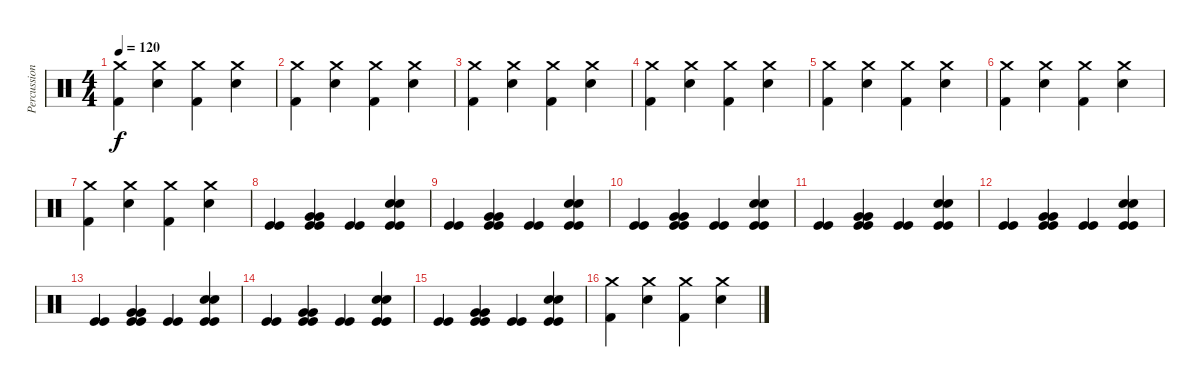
\track ("Percussion" "Percussion") {instrument percussion}
\staff {score}
\articulation defaults
\ts (4 4)
\tempo 120
\clef neutral
\ks c
("Crash medium (hit)" "Kick (hit) 2").4{dy f} ("Crash medium (hit)" "Snare (hit) 2").4 ("Crash medium (hit)" "Kick (hit) 2").4 ("Crash medium (hit)" "Snare (hit) 2").4 |
("Crash medium (hit)" "Kick (hit) 2").4 ("Crash medium (hit)" "Snare (hit) 2").4 ("Crash medium (hit)" "Kick (hit) 2").4 ("Crash medium (hit)" "Snare (hit) 2").4 |
("Crash medium (hit)" "Kick (hit) 2").4 ("Crash medium (hit)" "Snare (hit) 2").4 ("Crash medium (hit)" "Kick (hit) 2").4 ("Crash medium (hit)" "Snare (hit) 2").4 |
("Crash medium (hit)" "Kick (hit) 2").4 ("Crash medium (hit)" "Snare (hit) 2").4 ("Crash medium (hit)" "Kick (hit) 2").4 ("Crash medium (hit)" "Snare (hit) 2").4 |
("Crash medium (hit)" "Kick (hit) 2").4 ("Crash medium (hit)" "Snare (hit) 2").4 ("Crash medium (hit)" "Kick (hit) 2").4 ("Crash medium (hit)" "Snare (hit) 2").4 |
("Crash medium (hit)" "Kick (hit) 2").4 ("Crash medium (hit)" "Snare (hit) 2").4 ("Crash medium (hit)" "Kick (hit) 2").4 ("Crash medium (hit)" "Snare (hit) 2").4 |
("Crash medium (hit)" "Kick (hit) 2").4 ("Crash medium (hit)" "Snare (hit) 2").4 ("Crash medium (hit)" "Kick (hit) 2").4 ("Crash medium (hit)" "Snare (hit) 2").4 |
("Kick (hit)" "Kick (hit)").4 ("Kick (hit)" "Kick (hit)" "Very Low Tom (hit)" "Very Low Tom (hit)").4 ("Kick (hit)" "Kick (hit)").4 ("Kick (hit)" "Kick (hit)" "Snare (hit) 2" "Snare (hit) 2").4 |
("Kick (hit)" "Kick (hit)").4 ("Kick (hit)" "Kick (hit)" "Very Low Tom (hit)" "Very Low Tom (hit)").4 ("Kick (hit)" "Kick (hit)").4 ("Kick (hit)" "Kick (hit)" "Snare (hit) 2" "Snare (hit) 2").4 |
("Kick (hit)" "Kick (hit)").4 ("Kick (hit)" "Kick (hit)" "Very Low Tom (hit)" "Very Low Tom (hit)").4 ("Kick (hit)" "Kick (hit)").4 ("Kick (hit)" "Kick (hit)" "Snare (hit) 2" "Snare (hit) 2").4 |
("Kick (hit)" "Kick (hit)").4 ("Kick (hit)" "Kick (hit)" "Very Low Tom (hit)" "Very Low Tom (hit)").4 ("Kick (hit)" "Kick (hit)").4 ("Kick (hit)" "Kick (hit)" "Snare (hit) 2" "Snare (hit) 2").4 |
("Kick (hit)" "Kick (hit)").4 ("Kick (hit)" "Kick (hit)" "Very Low Tom (hit)" "Very Low Tom (hit)").4 ("Kick (hit)" "Kick (hit)").4 ("Kick (hit)" "Kick (hit)" "Snare (hit) 2" "Snare (hit) 2").4 |
("Kick (hit)" "Kick (hit)").4 ("Kick (hit)" "Kick (hit)" "Very Low Tom (hit)" "Very Low Tom (hit)").4 ("Kick (hit)" "Kick (hit)").4 ("Kick (hit)" "Kick (hit)" "Snare (hit) 2" "Snare (hit) 2").4 |
("Kick (hit)" "Kick (hit)").4 ("Kick (hit)" "Kick (hit)" "Very Low Tom (hit)" "Very Low Tom (hit)").4 ("Kick (hit)" "Kick (hit)").4 ("Kick (hit)" "Kick (hit)" "Snare (hit) 2" "Snare (hit) 2").4 |
("Kick (hit)" "Kick (hit)").4 ("Kick (hit)" "Kick (hit)" "Very Low Tom (hit)" "Very Low Tom (hit)").4 ("Kick (hit)" "Kick (hit)").4 ("Kick (hit)" "Kick (hit)" "Snare (hit) 2" "Snare (hit) 2").4 |
("Crash medium (hit)" "Kick (hit) 2").4 ("Crash medium (hit)" "Snare (hit) 2").4 ("Crash medium (hit)" "Kick (hit) 2").4 ("Crash medium (hit)" "Snare (hit) 2").4
